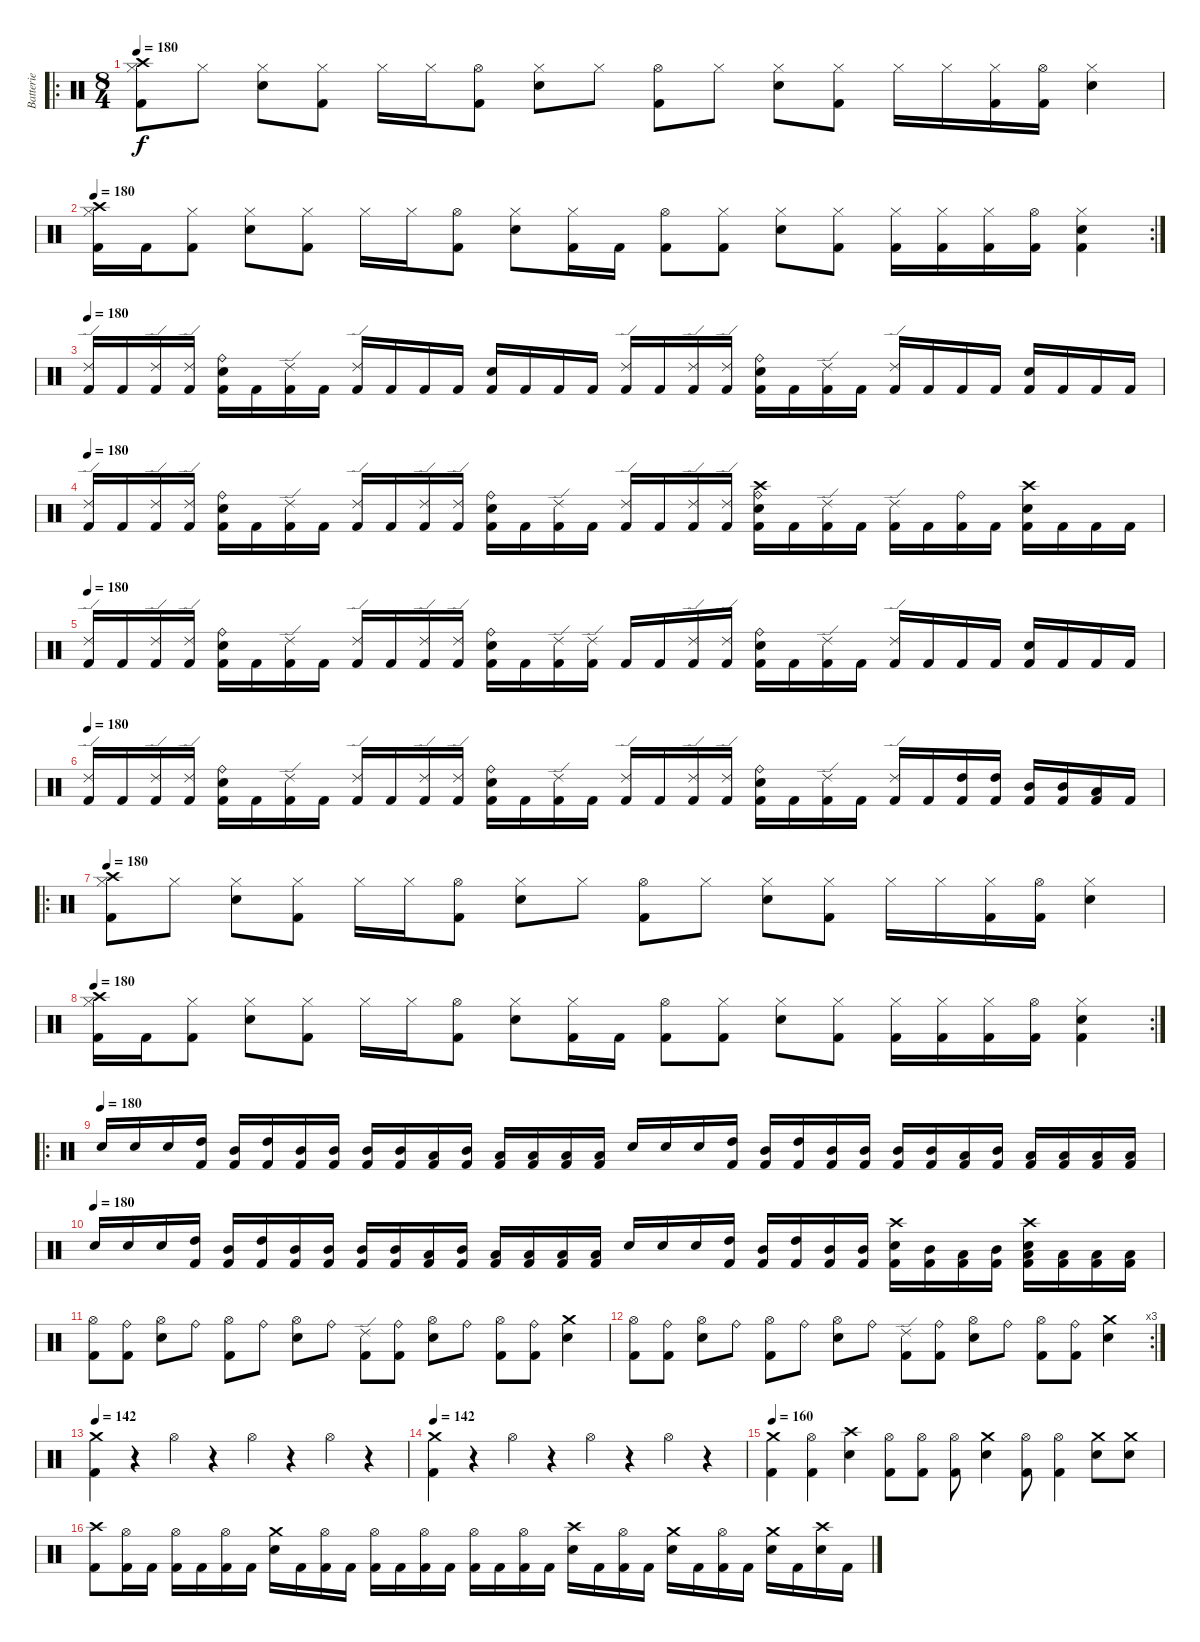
\track ("Batterie" "Batterie") {instrument percussion}
\staff {score}
\articulation defaults
\ro
\ts (8 4)
\tempo 170
\tempo 180
\clef neutral
\ks c
("Crash high (hit)" "Hi-Hat (closed)" "Kick (hit) 2").8{dy f} "Hi-Hat (closed)".8 ("Hi-Hat (closed)" "Electric Snare (hit)").8 ("Hi-Hat (closed)" "Kick (hit) 2").8 "Hi-Hat (closed)".16 "Hi-Hat (closed)".16 ("Hi-Hat (open)" "Kick (hit) 2").8 ("Hi-Hat (closed)" "Electric Snare (hit)").8 "Hi-Hat (closed)".8 ("Hi-Hat (open)" "Kick (hit) 2").8 "Hi-Hat (closed)".8 ("Hi-Hat (closed)" "Electric Snare (hit)").8 ("Hi-Hat (closed)" "Kick (hit) 2").8 "Hi-Hat (closed)".16 "Hi-Hat (closed)".16 ("Hi-Hat (closed)" "Kick (hit) 2").16 ("Hi-Hat (open)" "Kick (hit) 2").16 ("Hi-Hat (closed)" "Electric Snare (hit)").4 |
\rc 2
\tempo 180
("Crash high (hit)" "Hi-Hat (closed)" "Kick (hit) 2").16 "Kick (hit) 2".16 ("Hi-Hat (closed)" "Kick (hit) 2").8 ("Hi-Hat (closed)" "Electric Snare (hit)").8 ("Hi-Hat (closed)" "Kick (hit) 2").8 "Hi-Hat (closed)".16 "Hi-Hat (closed)".16 ("Hi-Hat (open)" "Kick (hit) 2").8 ("Hi-Hat (closed)" "Electric Snare (hit)").8 ("Hi-Hat (closed)" "Kick (hit) 2").16 "Kick (hit) 2".16 ("Hi-Hat (open)" "Kick (hit) 2").8 ("Hi-Hat (closed)" "Kick (hit) 2").8 ("Hi-Hat (closed)" "Electric Snare (hit)").8 ("Hi-Hat (closed)" "Kick (hit) 2").8 ("Hi-Hat (closed)" "Kick (hit) 2").16 ("Hi-Hat (closed)" "Kick (hit) 2").16 ("Hi-Hat (closed)" "Kick (hit) 2").16 ("Hi-Hat (open)" "Kick (hit) 2").16 ("Hi-Hat (closed)" "Electric Snare (hit)" "Kick (hit) 2").4 |
\tempo 180
("Ride (edge) 2" "Kick (hit) 2").16 "Kick (hit) 2".16 ("Ride (edge) 2" "Kick (hit) 2").16 ("Ride (edge) 2" "Kick (hit) 2").16 ("Ride (bell)" "Electric Snare (hit)" "Kick (hit) 2").16 "Kick (hit) 2".16 ("Ride (edge) 2" "Kick (hit) 2").16 "Kick (hit) 2".16 ("Ride (edge) 2" "Kick (hit) 2").16 "Kick (hit) 2".16 "Kick (hit) 2".16 "Kick (hit) 2".16 ("Electric Snare (hit)" "Kick (hit) 2").16 "Kick (hit) 2".16 "Kick (hit) 2".16 "Kick (hit) 2".16 ("Ride (edge) 2" "Kick (hit) 2").16 "Kick (hit) 2".16 ("Ride (edge) 2" "Kick (hit) 2").16 ("Ride (edge) 2" "Kick (hit) 2").16 ("Ride (bell)" "Electric Snare (hit)" "Kick (hit) 2").16 "Kick (hit) 2".16 ("Ride (edge) 2" "Kick (hit) 2").16 "Kick (hit) 2".16 ("Ride (edge) 2" "Kick (hit) 2").16 "Kick (hit) 2".16 "Kick (hit) 2".16 "Kick (hit) 2".16 ("Electric Snare (hit)" "Kick (hit) 2").16 "Kick (hit) 2".16 "Kick (hit) 2".16 "Kick (hit) 2".16 |
\tempo 180
("Ride (edge) 2" "Kick (hit) 2").16 "Kick (hit) 2".16 ("Ride (edge) 2" "Kick (hit) 2").16 ("Ride (edge) 2" "Kick (hit) 2").16 ("Ride (bell)" "Electric Snare (hit)" "Kick (hit) 2").16 "Kick (hit) 2".16 ("Ride (edge) 2" "Kick (hit) 2").16 "Kick (hit) 2".16 ("Ride (edge) 2" "Kick (hit) 2").16 "Kick (hit) 2".16 ("Ride (edge) 2" "Kick (hit) 2").16 ("Ride (edge) 2" "Kick (hit) 2").16 ("Ride (bell)" "Electric Snare (hit)" "Kick (hit) 2").16 "Kick (hit) 2".16 ("Ride (edge) 2" "Kick (hit) 2").16 "Kick (hit) 2".16 ("Ride (edge) 2" "Kick (hit) 2").16 "Kick (hit) 2".16 ("Ride (edge) 2" "Kick (hit) 2").16 ("Ride (edge) 2" "Kick (hit) 2").16 ("Crash high (hit)" "Ride (bell)" "Electric Snare (hit)" "Kick (hit) 2").16 "Kick (hit) 2".16 ("Ride (edge) 2" "Kick (hit) 2").16 "Kick (hit) 2".16 ("Ride (edge) 2" "Kick (hit) 2").16 "Kick (hit) 2".16 ("Ride (bell)" "Kick (hit) 2").16 "Kick (hit) 2".16 ("Crash high (hit)" "Electric Snare (hit)" "Kick (hit) 2").16 "Kick (hit) 2".16 "Kick (hit) 2".16 "Kick (hit) 2".16 |
\tempo 180
("Ride (edge) 2" "Kick (hit) 2").16 "Kick (hit) 2".16 ("Ride (edge) 2" "Kick (hit) 2").16 ("Ride (edge) 2" "Kick (hit) 2").16 ("Ride (bell)" "Electric Snare (hit)" "Kick (hit) 2").16 "Kick (hit) 2".16 ("Ride (edge) 2" "Kick (hit) 2").16 "Kick (hit) 2".16 ("Ride (edge) 2" "Kick (hit) 2").16 "Kick (hit) 2".16 ("Ride (edge) 2" "Kick (hit) 2").16 ("Ride (edge) 2" "Kick (hit) 2").16 ("Ride (bell)" "Electric Snare (hit)" "Kick (hit) 2").16 "Kick (hit) 2".16 ("Ride (edge) 2" "Kick (hit) 2").16 ("Ride (edge) 2" "Kick (hit) 2").16 "Kick (hit) 2".16 "Kick (hit) 2".16 ("Ride (edge) 2" "Kick (hit) 2").16 ("Ride (edge) 2" "Kick (hit) 2").16 ("Ride (bell)" "Electric Snare (hit)" "Kick (hit) 2").16 "Kick (hit) 2".16 ("Ride (edge) 2" "Kick (hit) 2").16 "Kick (hit) 2".16 ("Ride (edge) 2" "Kick (hit) 2").16 "Kick (hit) 2".16 "Kick (hit) 2".16 "Kick (hit) 2".16 ("Electric Snare (hit)" "Kick (hit) 2").16 "Kick (hit) 2".16 "Kick (hit) 2".16 "Kick (hit) 2".16 |
\tempo 180
("Ride (edge) 2" "Kick (hit) 2").16 "Kick (hit) 2".16 ("Ride (edge) 2" "Kick (hit) 2").16 ("Ride (edge) 2" "Kick (hit) 2").16 ("Ride (bell)" "Electric Snare (hit)" "Kick (hit) 2").16 "Kick (hit) 2".16 ("Ride (edge) 2" "Kick (hit) 2").16 "Kick (hit) 2".16 ("Ride (edge) 2" "Kick (hit) 2").16 "Kick (hit) 2".16 ("Ride (edge) 2" "Kick (hit) 2").16 ("Ride (edge) 2" "Kick (hit) 2").16 ("Ride (bell)" "Electric Snare (hit)" "Kick (hit) 2").16 "Kick (hit) 2".16 ("Ride (edge) 2" "Kick (hit) 2").16 "Kick (hit) 2".16 ("Ride (edge) 2" "Kick (hit) 2").16 "Kick (hit) 2".16 ("Ride (edge) 2" "Kick (hit) 2").16 ("Ride (edge) 2" "Kick (hit) 2").16 ("Ride (bell)" "Electric Snare (hit)" "Kick (hit) 2").16 "Kick (hit) 2".16 ("Ride (edge) 2" "Kick (hit) 2").16 "Kick (hit) 2".16 ("Ride (edge) 2" "Kick (hit) 2").16 "Kick (hit) 2".16 ("High Tom (hit)" "Kick (hit) 2").16 ("High Tom (hit)" "Kick (hit) 2").16 ("Mid Tom (hit)" "Kick (hit) 2").16 ("Mid Tom (hit)" "Kick (hit) 2").16 ("Low Tom (hit)" "Kick (hit) 2").16 "Kick (hit) 2".16 |
\ro
\tempo 170
\tempo 180
("Crash high (hit)" "Hi-Hat (closed)" "Kick (hit) 2").8 "Hi-Hat (closed)".8 ("Hi-Hat (closed)" "Electric Snare (hit)").8 ("Hi-Hat (closed)" "Kick (hit) 2").8 "Hi-Hat (closed)".16 "Hi-Hat (closed)".16 ("Hi-Hat (open)" "Kick (hit) 2").8 ("Hi-Hat (closed)" "Electric Snare (hit)").8 "Hi-Hat (closed)".8 ("Hi-Hat (open)" "Kick (hit) 2").8 "Hi-Hat (closed)".8 ("Hi-Hat (closed)" "Electric Snare (hit)").8 ("Hi-Hat (closed)" "Kick (hit) 2").8 "Hi-Hat (closed)".16 "Hi-Hat (closed)".16 ("Hi-Hat (closed)" "Kick (hit) 2").16 ("Hi-Hat (open)" "Kick (hit) 2").16 ("Hi-Hat (closed)" "Electric Snare (hit)").4 |
\rc 2
\tempo 180
("Crash high (hit)" "Hi-Hat (closed)" "Kick (hit) 2").16 "Kick (hit) 2".16 ("Hi-Hat (closed)" "Kick (hit) 2").8 ("Hi-Hat (closed)" "Electric Snare (hit)").8 ("Hi-Hat (closed)" "Kick (hit) 2").8 "Hi-Hat (closed)".16 "Hi-Hat (closed)".16 ("Hi-Hat (open)" "Kick (hit) 2").8 ("Hi-Hat (closed)" "Electric Snare (hit)").8 ("Hi-Hat (closed)" "Kick (hit) 2").16 "Kick (hit) 2".16 ("Hi-Hat (open)" "Kick (hit) 2").8 ("Hi-Hat (closed)" "Kick (hit) 2").8 ("Hi-Hat (closed)" "Electric Snare (hit)").8 ("Hi-Hat (closed)" "Kick (hit) 2").8 ("Hi-Hat (closed)" "Kick (hit) 2").16 ("Hi-Hat (closed)" "Kick (hit) 2").16 ("Hi-Hat (closed)" "Kick (hit) 2").16 ("Hi-Hat (open)" "Kick (hit) 2").16 ("Hi-Hat (closed)" "Electric Snare (hit)" "Kick (hit) 2").4 |
\ro
\tempo 170
\tempo (180)
"Electric Snare (hit)".16 "Electric Snare (hit)".16 "Electric Snare (hit)".16 ("High Tom (hit)" "Kick (hit) 2").16 ("Mid Tom (hit)" "Kick (hit) 2").16 ("High Tom (hit)" "Kick (hit) 2").16 ("Mid Tom (hit)" "Kick (hit) 2").16 ("Mid Tom (hit)" "Kick (hit) 2").16 ("Mid Tom (hit)" "Kick (hit) 2").16 ("Mid Tom (hit)" "Kick (hit) 2").16 ("Low Tom (hit)" "Kick (hit) 2").16 ("Mid Tom (hit)" "Kick (hit) 2").16 ("Low Tom (hit)" "Kick (hit) 2").16 ("Low Tom (hit)" "Kick (hit) 2").16 ("Low Tom (hit)" "Kick (hit) 2").16 ("Low Tom (hit)" "Kick (hit) 2").16 "Electric Snare (hit)".16 "Electric Snare (hit)".16 "Electric Snare (hit)".16 ("High Tom (hit)" "Kick (hit) 2").16 ("Mid Tom (hit)" "Kick (hit) 2").16 ("High Tom (hit)" "Kick (hit) 2").16 ("Mid Tom (hit)" "Kick (hit) 2").16 ("Mid Tom (hit)" "Kick (hit) 2").16 ("Mid Tom (hit)" "Kick (hit) 2").16 ("Mid Tom (hit)" "Kick (hit) 2").16 ("Low Tom (hit)" "Kick (hit) 2").16 ("Mid Tom (hit)" "Kick (hit) 2").16 ("Low Tom (hit)" "Kick (hit) 2").16 ("Low Tom (hit)" "Kick (hit) 2").16 ("Low Tom (hit)" "Kick (hit) 2").16 ("Low Tom (hit)" "Kick (hit) 2").16 |
\tempo (180)
"Electric Snare (hit)".16 "Electric Snare (hit)".16 "Electric Snare (hit)".16 ("High Tom (hit)" "Kick (hit) 2").16 ("Mid Tom (hit)" "Kick (hit) 2").16 ("High Tom (hit)" "Kick (hit) 2").16 ("Mid Tom (hit)" "Kick (hit) 2").16 ("Mid Tom (hit)" "Kick (hit) 2").16 ("Mid Tom (hit)" "Kick (hit) 2").16 ("Mid Tom (hit)" "Kick (hit) 2").16 ("Low Tom (hit)" "Kick (hit) 2").16 ("Mid Tom (hit)" "Kick (hit) 2").16 ("Low Tom (hit)" "Kick (hit) 2").16 ("Low Tom (hit)" "Kick (hit) 2").16 ("Low Tom (hit)" "Kick (hit) 2").16 ("Low Tom (hit)" "Kick (hit) 2").16 "Electric Snare (hit)".16 "Electric Snare (hit)".16 "Electric Snare (hit)".16 ("High Tom (hit)" "Kick (hit) 2").16 ("Mid Tom (hit)" "Kick (hit) 2").16 ("High Tom (hit)" "Kick (hit) 2").16 ("Mid Tom (hit)" "Kick (hit) 2").16 ("Mid Tom (hit)" "Kick (hit) 2").16 ("Crash high (hit)" "Electric Snare (hit)" "Kick (hit) 2").16 ("Mid Tom (hit)" "Kick (hit) 2").16 ("Low Tom (hit)" "Kick (hit) 2").16 ("Mid Tom (hit)" "Kick (hit) 2").16 ("Crash high (hit)" "Electric Snare (hit)" "Low Tom (hit)" "Kick (hit) 2").16 ("Low Tom (hit)" "Kick (hit) 2").16 ("Low Tom (hit)" "Kick (hit) 2").16 ("Low Tom (hit)" "Kick (hit) 2").16 |
("Hi-Hat (open)" "Kick (hit) 2").8 ("Ride (bell)" "Kick (hit) 2").8 ("Hi-Hat (open)" "Electric Snare (hit)").8 "Ride (bell)".8 ("Hi-Hat (open)" "Kick (hit) 2").8 "Ride (bell)".8 ("Hi-Hat (open)" "Electric Snare (hit)").8 "Ride (bell)".8 ("Ride (edge) 2" "Kick (hit) 2").8 ("Ride (bell)" "Kick (hit) 2").8 ("Hi-Hat (open)" "Electric Snare (hit)").8 "Ride (bell)".8 ("Hi-Hat (open)" "Kick (hit) 2").8 ("Ride (bell)" "Kick (hit) 2").8 ("Crash medium (hit)" "Electric Snare (hit)").4 |
\rc 3
("Hi-Hat (open)" "Kick (hit) 2").8 ("Ride (bell)" "Kick (hit) 2").8 ("Hi-Hat (open)" "Electric Snare (hit)").8 "Ride (bell)".8 ("Hi-Hat (open)" "Kick (hit) 2").8 "Ride (bell)".8 ("Hi-Hat (open)" "Electric Snare (hit)").8 "Ride (bell)".8 ("Ride (edge) 2" "Kick (hit) 2").8 ("Ride (bell)" "Kick (hit) 2").8 ("Hi-Hat (open)" "Electric Snare (hit)").8 "Ride (bell)".8 ("Hi-Hat (open)" "Kick (hit) 2").8 ("Ride (bell)" "Kick (hit) 2").8 ("Crash medium (hit)" "Electric Snare (hit)").4 |
\tempo 142
("Crash medium (hit)" "Kick (hit) 2").4 r.4 "Hi-Hat (open)".4 r.4 "Hi-Hat (open)".4 r.4 "Hi-Hat (open)".4 r.4 |
\tempo 142
("Crash medium (hit)" "Kick (hit) 2").4 r.4 "Hi-Hat (open)".4 r.4 "Hi-Hat (open)".4 r.4 "Hi-Hat (open)".4 r.4 |
\tempo 160
("Crash medium (hit)" "Kick (hit) 2").4 ("Hi-Hat (open)" "Kick (hit) 2").4 ("Crash high (hit)" "Electric Snare (hit)").4 ("Hi-Hat (open)" "Kick (hit) 2").8 ("Hi-Hat (open)" "Kick (hit) 2").8 ("Hi-Hat (open)" "Kick (hit) 2").8 ("Crash medium (hit)" "Electric Snare (hit)").4 ("Hi-Hat (open)" "Kick (hit) 2").8 ("Hi-Hat (open)" "Kick (hit) 2").4 ("Crash medium (hit)" "Electric Snare (hit)").8 ("Crash medium (hit)" "Electric Snare (hit)").8 |
("Crash high (hit)" "Kick (hit) 2").8 ("Hi-Hat (open)" "Kick (hit) 2").16 "Kick (hit) 2".16 ("Hi-Hat (open)" "Kick (hit) 2").16 "Kick (hit) 2".16 ("Hi-Hat (open)" "Kick (hit) 2").16 "Kick (hit) 2".16 ("Crash medium (hit)" "Electric Snare (hit)").16 "Kick (hit) 2".16 ("Hi-Hat (open)" "Kick (hit) 2").16 "Kick (hit) 2".16 ("Hi-Hat (open)" "Kick (hit) 2").16 "Kick (hit) 2".16 ("Hi-Hat (open)" "Kick (hit) 2").16 "Kick (hit) 2".16 ("Hi-Hat (open)" "Kick (hit) 2").16 "Kick (hit) 2".16 ("Hi-Hat (open)" "Kick (hit) 2").16 "Kick (hit) 2".16 ("Crash high (hit)" "Electric Snare (hit)").16 "Kick (hit) 2".16 ("Hi-Hat (open)" "Kick (hit) 2").16 "Kick (hit) 2".16 ("Crash medium (hit)" "Electric Snare (hit)").16 "Kick (hit) 2".16 ("Hi-Hat (open)" "Kick (hit) 2").16 "Kick (hit) 2".16 ("Crash medium (hit)" "Electric Snare (hit)").16 "Kick (hit) 2".16 ("Crash high (hit)" "Electric Snare (hit)").16 "Kick (hit) 2".16
